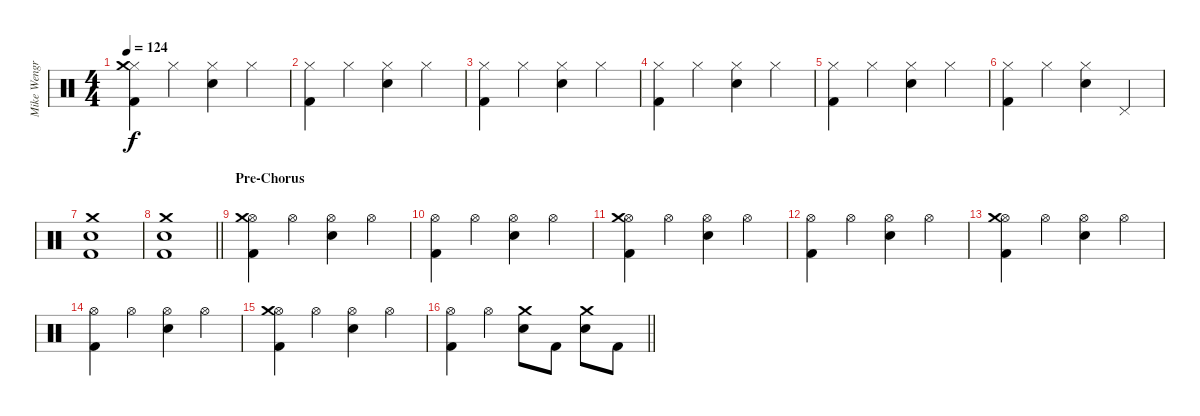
\track ("Mike Wengren" "Mike Wengr") {instrument percussion}
\staff {score}
\articulation defaults
\ts (4 4)
\tempo 124
\clef neutral
\ks c
("Kick (hit) 2" "Hi-Hat (closed)" "Crash medium (hit)").4{dy f} "Hi-Hat (closed)".4 ("Electric Snare (hit)" "Hi-Hat (closed)").4 "Hi-Hat (closed)".4 |
("Kick (hit) 2" "Hi-Hat (closed)").4 "Hi-Hat (closed)".4 ("Electric Snare (hit)" "Hi-Hat (closed)").4 "Hi-Hat (closed)".4 |
("Kick (hit) 2" "Hi-Hat (closed)").4 "Hi-Hat (closed)".4 ("Electric Snare (hit)" "Hi-Hat (closed)").4 "Hi-Hat (closed)".4 |
("Kick (hit) 2" "Hi-Hat (closed)").4 "Hi-Hat (closed)".4 ("Electric Snare (hit)" "Hi-Hat (closed)").4 "Hi-Hat (closed)".4 |
("Kick (hit) 2" "Hi-Hat (closed)").4 "Hi-Hat (closed)".4 ("Electric Snare (hit)" "Hi-Hat (closed)").4 "Hi-Hat (closed)".4 |
("Kick (hit) 2" "Hi-Hat (closed)").4 "Hi-Hat (closed)".4 ("Electric Snare (hit)" "Hi-Hat (closed)").4 "Pedal Hi-Hat (hit)".4 |
("Kick (hit) 2" "Electric Snare (hit)" "Crash medium (hit)").1 |
\barLineRight lightlight
("Kick (hit) 2" "Electric Snare (hit)" "Crash medium (hit)").1 |
\section ("" "Pre-Chorus")
("Kick (hit) 2" "Hi-Hat (open)" "Crash medium (hit)").4 "Hi-Hat (open)".4 ("Electric Snare (hit)" "Hi-Hat (open)").4 "Hi-Hat (open)".4 |
("Kick (hit) 2" "Hi-Hat (open)").4 "Hi-Hat (open)".4 ("Electric Snare (hit)" "Hi-Hat (open)").4 "Hi-Hat (open)".4 |
("Kick (hit) 2" "Hi-Hat (open)" "Crash medium (hit)").4 "Hi-Hat (open)".4 ("Electric Snare (hit)" "Hi-Hat (open)").4 "Hi-Hat (open)".4 |
("Kick (hit) 2" "Hi-Hat (open)").4 "Hi-Hat (open)".4 ("Electric Snare (hit)" "Hi-Hat (open)").4 "Hi-Hat (open)".4 |
("Kick (hit) 2" "Hi-Hat (open)" "Crash medium (hit)").4 "Hi-Hat (open)".4 ("Electric Snare (hit)" "Hi-Hat (open)").4 "Hi-Hat (open)".4 |
("Kick (hit) 2" "Hi-Hat (open)").4 "Hi-Hat (open)".4 ("Electric Snare (hit)" "Hi-Hat (open)").4 "Hi-Hat (open)".4 |
("Kick (hit) 2" "Hi-Hat (open)" "Crash medium (hit)").4 "Hi-Hat (open)".4 ("Electric Snare (hit)" "Hi-Hat (open)").4 "Hi-Hat (open)".4 |
\barLineRight lightlight
("Kick (hit) 2" "Hi-Hat (open)").4 "Hi-Hat (open)".4 ("Electric Snare (hit)" "Crash medium (hit)").8 "Kick (hit) 2".8 ("Electric Snare (hit)" "Crash medium (hit)").8 "Kick (hit) 2".8
